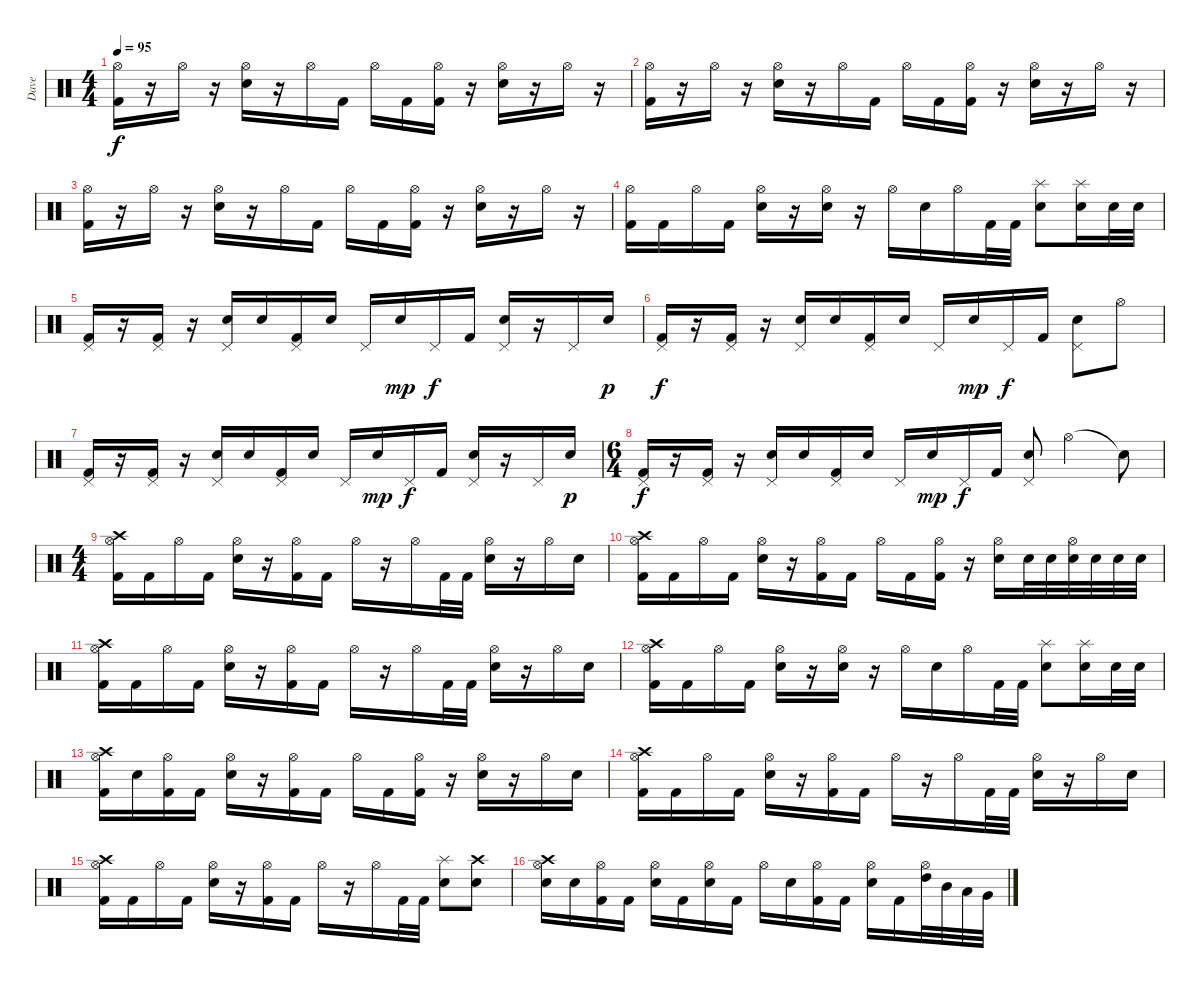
\track ("Dave" "Dave") {instrument percussion}
\staff {score}
\articulation defaults
\ts (4 4)
\tempo 95
\clef neutral
\ks c
("Kick (hit) 2" "Hi-Hat (open)").16{dy f} r.16 "Hi-Hat (open)".16 r.16 ("Snare (hit) 2" "Hi-Hat (open)").16 r.16 "Hi-Hat (open)".16 "Kick (hit) 2".16 "Hi-Hat (open)".16 "Kick (hit) 2".16 ("Kick (hit) 2" "Hi-Hat (open)").16 r.16 ("Snare (hit) 2" "Hi-Hat (open)").16 r.16 "Hi-Hat (open)".16 r.16 |
("Kick (hit) 2" "Hi-Hat (open)").16 r.16 "Hi-Hat (open)".16 r.16 ("Snare (hit) 2" "Hi-Hat (open)").16 r.16 "Hi-Hat (open)".16 "Kick (hit) 2".16 "Hi-Hat (open)".16 "Kick (hit) 2".16 ("Kick (hit) 2" "Hi-Hat (open)").16 r.16 ("Snare (hit) 2" "Hi-Hat (open)").16 r.16 "Hi-Hat (open)".16 r.16 |
("Kick (hit) 2" "Hi-Hat (open)").16 r.16 "Hi-Hat (open)".16 r.16 ("Snare (hit) 2" "Hi-Hat (open)").16 r.16 "Hi-Hat (open)".16 "Kick (hit) 2".16 "Hi-Hat (open)".16 "Kick (hit) 2".16 ("Kick (hit) 2" "Hi-Hat (open)").16 r.16 ("Snare (hit) 2" "Hi-Hat (open)").16 r.16 "Hi-Hat (open)".16 r.16 |
("Kick (hit) 2" "Hi-Hat (open)").16 "Kick (hit) 2".16 "Hi-Hat (open)".16 "Kick (hit) 2".16 ("Snare (hit) 2" "Hi-Hat (open)").16 r.16 ("Snare (hit) 2" "Hi-Hat (open)").16 r.16 "Hi-Hat (open)".16 "Snare (hit) 2".16 "Hi-Hat (open)".16 "Kick (hit) 2".32 "Kick (hit) 2".32 ("Snare (hit) 2" "Splash (hit)").8 ("Snare (hit) 2" "Splash (hit)").16 "Snare (hit) 2".32 "Snare (hit) 2".32 |
("Kick (hit) 2" "Pedal Hi-Hat (hit)").16 r.16 ("Kick (hit) 2" "Pedal Hi-Hat (hit)").16 r.16 ("Snare (hit) 2" "Pedal Hi-Hat (hit)").16 "Snare (hit) 2".16 ("Kick (hit) 2" "Pedal Hi-Hat (hit)").16 "Snare (hit) 2".16 "Pedal Hi-Hat (hit)".16 "Snare (hit) 2".16{dy mp} "Pedal Hi-Hat (hit)".16{dy f} "Kick (hit) 2".16 ("Snare (hit) 2" "Pedal Hi-Hat (hit)").16 r.16 "Pedal Hi-Hat (hit)".16 "Snare (hit) 2".16{dy p} |
("Kick (hit) 2" "Pedal Hi-Hat (hit)").16{dy f} r.16 ("Kick (hit) 2" "Pedal Hi-Hat (hit)").16 r.16 ("Snare (hit) 2" "Pedal Hi-Hat (hit)").16 "Snare (hit) 2".16 ("Kick (hit) 2" "Pedal Hi-Hat (hit)").16 "Snare (hit) 2".16 "Pedal Hi-Hat (hit)".16 "Snare (hit) 2".16{dy mp} "Pedal Hi-Hat (hit)".16{dy f} "Kick (hit) 2".16 ("Snare (hit) 2" "Pedal Hi-Hat (hit)").8 "Hi-Hat (open)".8 |
("Kick (hit) 2" "Pedal Hi-Hat (hit)").16 r.16 ("Kick (hit) 2" "Pedal Hi-Hat (hit)").16 r.16 ("Snare (hit) 2" "Pedal Hi-Hat (hit)").16 "Snare (hit) 2".16 ("Kick (hit) 2" "Pedal Hi-Hat (hit)").16 "Snare (hit) 2".16 "Pedal Hi-Hat (hit)".16 "Snare (hit) 2".16{dy mp} "Pedal Hi-Hat (hit)".16{dy f} "Kick (hit) 2".16 ("Snare (hit) 2" "Pedal Hi-Hat (hit)").16 r.16 "Pedal Hi-Hat (hit)".16 "Snare (hit) 2".16{dy p} |
\ts (6 4)
("Kick (hit) 2" "Pedal Hi-Hat (hit)").16{dy f} r.16 ("Kick (hit) 2" "Pedal Hi-Hat (hit)").16 r.16 ("Snare (hit) 2" "Pedal Hi-Hat (hit)").16 "Snare (hit) 2".16 ("Kick (hit) 2" "Pedal Hi-Hat (hit)").16 "Snare (hit) 2".16 "Pedal Hi-Hat (hit)".16 "Snare (hit) 2".16{dy mp} "Pedal Hi-Hat (hit)".16{dy f} "Kick (hit) 2".16 ("Snare (hit) 2" "Pedal Hi-Hat (hit)").8 "Hi-Hat (open)".2 "Snare (hit)"{t}.8 |
\ts (4 4)
("Kick (hit) 2" "Hi-Hat (open)" "Crash high (hit)").16 "Kick (hit) 2".16 "Hi-Hat (open)".16 "Kick (hit) 2".16 ("Snare (hit) 2" "Hi-Hat (open)").16 r.16 ("Kick (hit) 2" "Hi-Hat (open)").16 "Kick (hit) 2".16 "Hi-Hat (open)".16 r.16 "Hi-Hat (open)".16 "Kick (hit) 2".32 "Kick (hit) 2".32 ("Snare (hit) 2" "Hi-Hat (open)").16 r.16 "Hi-Hat (open)".16 "Snare (hit) 2".16 |
("Kick (hit) 2" "Hi-Hat (open)" "Crash high (hit)").16 "Kick (hit) 2".16 "Hi-Hat (open)".16 "Kick (hit) 2".16 ("Snare (hit) 2" "Hi-Hat (open)").16 r.16 ("Kick (hit) 2" "Hi-Hat (open)").16 "Kick (hit) 2".16 "Hi-Hat (open)".16 "Kick (hit) 2".16 ("Kick (hit) 2" "Hi-Hat (open)").16 r.16 ("Snare (hit) 2" "Hi-Hat (open)").16 "Snare (hit) 2".32 "Snare (hit) 2".32 ("Snare (hit) 2" "Hi-Hat (open)").32 "Snare (hit) 2".32 "Snare (hit) 2".32 "Snare (hit) 2".32 |
("Kick (hit) 2" "Hi-Hat (open)" "Crash high (hit)").16 "Kick (hit) 2".16 "Hi-Hat (open)".16 "Kick (hit) 2".16 ("Snare (hit) 2" "Hi-Hat (open)").16 r.16 ("Kick (hit) 2" "Hi-Hat (open)").16 "Kick (hit) 2".16 "Hi-Hat (open)".16 r.16 "Hi-Hat (open)".16 "Kick (hit) 2".32 "Kick (hit) 2".32 ("Snare (hit) 2" "Hi-Hat (open)").16 r.16 "Hi-Hat (open)".16 "Snare (hit) 2".16 |
("Kick (hit) 2" "Hi-Hat (open)" "Crash high (hit)").16 "Kick (hit) 2".16 "Hi-Hat (open)".16 "Kick (hit) 2".16 ("Snare (hit) 2" "Hi-Hat (open)").16 r.16 ("Snare (hit) 2" "Hi-Hat (open)").16 r.16 "Hi-Hat (open)".16 "Snare (hit) 2".16 "Hi-Hat (open)".16 "Kick (hit) 2".32 "Kick (hit) 2".32 ("Snare (hit) 2" "Splash (hit)").8 ("Snare (hit) 2" "Splash (hit)").16 "Snare (hit) 2".32 "Snare (hit) 2".32 |
("Kick (hit) 2" "Hi-Hat (open)" "Crash high (hit)").16 "Snare (hit) 2".16 ("Kick (hit) 2" "Hi-Hat (open)").16 "Kick (hit) 2".16 ("Snare (hit) 2" "Hi-Hat (open)").16 r.16 ("Kick (hit) 2" "Hi-Hat (open)").16 "Kick (hit) 2".16 "Hi-Hat (open)".16 "Kick (hit) 2".16 ("Kick (hit) 2" "Hi-Hat (open)").16 r.16 ("Snare (hit) 2" "Hi-Hat (open)").16 r.16 "Hi-Hat (open)".16 "Snare (hit) 2".16 |
("Kick (hit) 2" "Hi-Hat (open)" "Crash high (hit)").16 "Kick (hit) 2".16 "Hi-Hat (open)".16 "Kick (hit) 2".16 ("Snare (hit) 2" "Hi-Hat (open)").16 r.16 ("Kick (hit) 2" "Hi-Hat (open)").16 "Kick (hit) 2".16 "Hi-Hat (open)".16 r.16 "Hi-Hat (open)".16 "Kick (hit) 2".32 "Kick (hit) 2".32 ("Snare (hit) 2" "Hi-Hat (open)").16 r.16 "Hi-Hat (open)".16 "Snare (hit) 2".16 |
("Kick (hit) 2" "Hi-Hat (open)" "Crash high (hit)").16 "Kick (hit) 2".16 "Hi-Hat (open)".16 "Kick (hit) 2".16 ("Snare (hit) 2" "Hi-Hat (open)").16 r.16 ("Kick (hit) 2" "Hi-Hat (open)").16 "Kick (hit) 2".16 "Hi-Hat (open)".16 r.16 "Hi-Hat (open)".16 "Kick (hit) 2".32 "Kick (hit) 2".32 ("Snare (hit) 2" "Splash (hit)").8 ("Snare (hit) 2" "Crash high (hit)").8 |
("Snare (hit) 2" "Hi-Hat (open)" "Crash high (hit)").16 "Snare (hit) 2".16 ("Kick (hit) 2" "Hi-Hat (open)").16 "Kick (hit) 2".16 ("Snare (hit) 2" "Hi-Hat (open)").16 "Kick (hit) 2".16 ("Snare (hit) 2" "Hi-Hat (open)").16 "Kick (hit) 2".16 "Hi-Hat (open)".16 "Snare (hit) 2".16 ("Kick (hit) 2" "Hi-Hat (open)").16 "Kick (hit) 2".16 ("Snare (hit) 2" "Hi-Hat (open)").16 "Kick (hit) 2".16 ("High Tom (hit)" "Hi-Hat (open)").32 "Mid Tom (hit)".32 "Low Tom (hit)".32 "Very Low Tom (hit)".32
